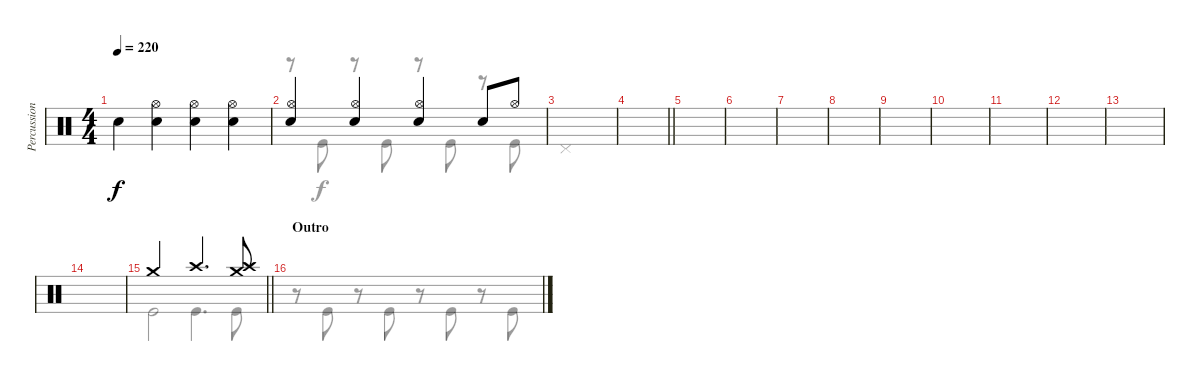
\track ("Percussion" "Percussion") {instrument percussion}
\staff {score}
\articulation defaults
\voice
\ts (4 4)
\tempo 220
\clef neutral
\ks c "Snare (hit)"{t}.4{dy f}
("Hi-Hat (open)" "Electric Snare (hit)").4 ("Hi-Hat (open)" "Electric Snare (hit)").4 ("Hi-Hat (open)" "Electric Snare (hit)").4 |
("Hi-Hat (open)" "Electric Snare (hit)").4 ("Hi-Hat (open)" "Electric Snare (hit)").4 ("Hi-Hat (open)" "Electric Snare (hit)").4 "Electric Snare (hit)".8 "Hi-Hat (open)".8 |
|
\barLineRight lightlight
|
|
|
|
|
|
|
|
|
|
|
\barLineRight lightlight "Crash medium (hit)".2 "Crash high (hit)".4{d}
("Crash medium (hit)" "Crash high (hit)").8 |
\section ("" "Outro")
\voice
\clef neutral
\ottava regular
\simile none
\ks c
r.8{dy f} "Kick (hit)".8 r.8 "Kick (hit)".8 r.8 "Kick (hit)".8 r.8 "Kick (hit)".8 |
r.8 "Kick (hit)".8 r.8 "Kick (hit)".8 r.8 "Kick (hit)".8 r.8 "Kick (hit)".8 |
"Pedal Hi-Hat (hit)".1 |
\barLineRight lightlight
|
|
|
|
|
|
|
|
|
|
|
\barLineRight lightlight "Kick (hit)".2 "Kick (hit)".4{d} "Kick (hit)".8
|
